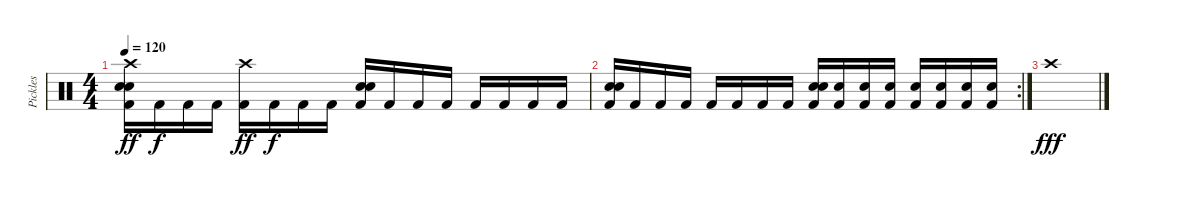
\track ("Pickles" "Pickles") {instrument percussion}
\staff {score}
\articulation defaults
\ts (4 4)
\tempo 120
\clef neutral
\ks c
("Crash high (hit)" "Electric Snare (hit)" "Snare (hit) 2" "Kick (hit) 2").16{dy ff} "Kick (hit) 2".16{dy f} "Kick (hit) 2".16 "Kick (hit) 2".16 ("Crash high (hit)" "Kick (hit) 2").16{dy ff} "Kick (hit) 2".16{dy f} "Kick (hit) 2".16 "Kick (hit) 2".16 ("Electric Snare (hit)" "Snare (hit) 2" "Kick (hit) 2").16 "Kick (hit) 2".16 "Kick (hit) 2".16 "Kick (hit) 2".16 "Kick (hit) 2".16 "Kick (hit) 2".16 "Kick (hit) 2".16 "Kick (hit) 2".16 |
\rc 2
("Electric Snare (hit)" "Snare (hit) 2" "Kick (hit) 2").16 "Kick (hit) 2".16 "Kick (hit) 2".16 "Kick (hit) 2".16 "Kick (hit) 2".16 "Kick (hit) 2".16 "Kick (hit) 2".16 "Kick (hit) 2".16 ("Electric Snare (hit)" "Snare (hit) 2" "Kick (hit) 2").16 ("Snare (hit) 2" "Kick (hit) 2").16 ("Snare (hit) 2" "Kick (hit) 2").16 ("Electric Snare (hit)" "Kick (hit) 2").16 ("Electric Snare (hit)" "Kick (hit) 2").16 ("Snare (hit) 2" "Kick (hit) 2").16 ("Snare (hit) 2" "Kick (hit) 2").16 ("Electric Snare (hit)" "Kick (hit) 2").16 |
"Crash high (hit)".1{dy fff}
